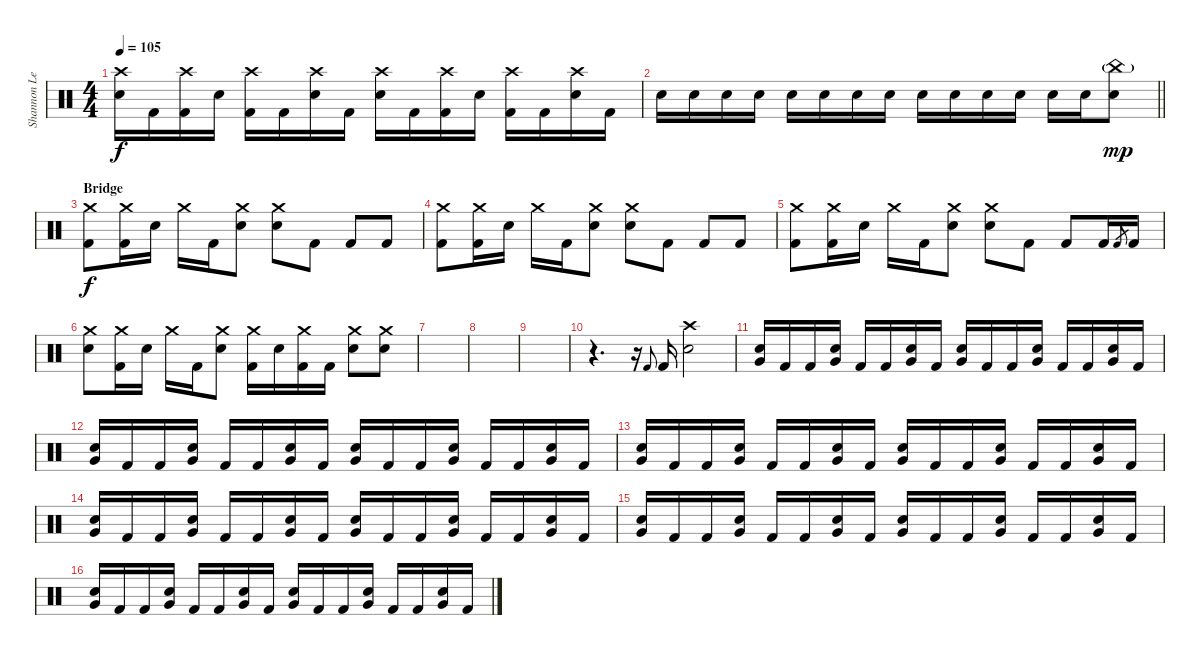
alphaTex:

\track ("Shannon Leto - Drums" "Shannon Le") {instrument percussion}
\staff {score}
\articulation defaults
\ts (4 4)
\tempo 105
\clef neutral
\ks c
("Crash high (hit)" "Electric Snare (hit)").16{dy f} "Kick (hit) 2".16 ("Crash high (hit)" "Kick (hit) 2").16 "Electric Snare (hit)".16 ("Crash high (hit)" "Kick (hit) 2").16 "Kick (hit) 2".16 ("Crash high (hit)" "Electric Snare (hit)").16 "Kick (hit) 2".16 ("Crash high (hit)" "Electric Snare (hit)").16 "Kick (hit) 2".16 ("Crash high (hit)" "Kick (hit) 2").16 "Electric Snare (hit)".16 ("Crash high (hit)" "Kick (hit) 2").16 "Kick (hit) 2".16 ("Crash high (hit)" "Electric Snare (hit)").16 "Kick (hit) 2".16 |
\barLineRight lightlight "Electric Snare (hit)".16 "Electric Snare (hit)".16 "Electric Snare (hit)".16 "Electric Snare (hit)".16 "Electric Snare (hit)".16 "Electric Snare (hit)".16 "Electric Snare (hit)".16 "Electric Snare (hit)".16 "Electric Snare (hit)".16 "Electric Snare (hit)".16 "Electric Snare (hit)".16 "Electric Snare (hit)".16 "Electric Snare (hit)".16 "Electric Snare (hit)".16
("China (hit)"{g} "Electric Snare (hit)").8{dy mp} |
\section ("" "Bridge")
("Crash medium (hit)" "Kick (hit) 2").8{dy f} ("Crash medium (hit)" "Kick (hit) 2").16 "Electric Snare (hit)".16 "Crash medium (hit)".16 "Kick (hit) 2".16 ("Crash medium (hit)" "Electric Snare (hit)").8 ("Crash medium (hit)" "Electric Snare (hit)").8 "Kick (hit) 2".8 "Kick (hit) 2".8 "Kick (hit) 2".8 |
("Crash medium (hit)" "Kick (hit) 2").8 ("Crash medium (hit)" "Kick (hit) 2").16 "Electric Snare (hit)".16 "Crash medium (hit)".16 "Kick (hit) 2".16 ("Crash medium (hit)" "Electric Snare (hit)").8 ("Crash medium (hit)" "Electric Snare (hit)").8 "Kick (hit) 2".8 "Kick (hit) 2".8 "Kick (hit) 2".8 |
("Crash medium (hit)" "Kick (hit) 2").8 ("Crash medium (hit)" "Kick (hit) 2").16 "Electric Snare (hit)".16 "Crash medium (hit)".16 "Kick (hit) 2".16 ("Crash medium (hit)" "Electric Snare (hit)").8 ("Crash medium (hit)" "Electric Snare (hit)").8 "Kick (hit) 2".8 "Kick (hit) 2".8 "Kick (hit) 2".16 "Kick (hit) 2".8{gr} "Kick (hit) 2".16 |
("Crash medium (hit)" "Electric Snare (hit)").8 ("Crash medium (hit)" "Kick (hit) 2").16 "Electric Snare (hit)".16 "Crash medium (hit)".16 "Kick (hit) 2".16 ("Crash medium (hit)" "Electric Snare (hit)").8 ("Crash medium (hit)" "Kick (hit) 2").16 "Electric Snare (hit)".16 ("Crash medium (hit)" "Kick (hit) 2").16 "Kick (hit) 2".16 ("Crash medium (hit)" "Electric Snare (hit)").8 ("Crash medium (hit)" "Electric Snare (hit)").8 |
|
|
|
r.4{d} r.16 "Kick (hit) 2".8{gr onbeat} "Kick (hit) 2".16 ("Crash high (hit)" "Electric Snare (hit)").2 |
("Electric Snare (hit)" "Very Low Tom (hit)").16 "Kick (hit) 2".16 "Kick (hit) 2".16 ("Electric Snare (hit)" "Very Low Tom (hit)").16 "Kick (hit) 2".16 "Kick (hit) 2".16 ("Electric Snare (hit)" "Very Low Tom (hit)").16 "Kick (hit) 2".16 ("Electric Snare (hit)" "Very Low Tom (hit)").16 "Kick (hit) 2".16 "Kick (hit) 2".16 ("Electric Snare (hit)" "Very Low Tom (hit)").16 "Kick (hit) 2".16 "Kick (hit) 2".16 ("Electric Snare (hit)" "Very Low Tom (hit)").16 "Kick (hit) 2".16 |
("Electric Snare (hit)" "Very Low Tom (hit)").16 "Kick (hit) 2".16 "Kick (hit) 2".16 ("Electric Snare (hit)" "Very Low Tom (hit)").16 "Kick (hit) 2".16 "Kick (hit) 2".16 ("Electric Snare (hit)" "Very Low Tom (hit)").16 "Kick (hit) 2".16 ("Electric Snare (hit)" "Very Low Tom (hit)").16 "Kick (hit) 2".16 "Kick (hit) 2".16 ("Electric Snare (hit)" "Very Low Tom (hit)").16 "Kick (hit) 2".16 "Kick (hit) 2".16 ("Electric Snare (hit)" "Very Low Tom (hit)").16 "Kick (hit) 2".16 |
("Electric Snare (hit)" "Very Low Tom (hit)").16 "Kick (hit) 2".16 "Kick (hit) 2".16 ("Electric Snare (hit)" "Very Low Tom (hit)").16 "Kick (hit) 2".16 "Kick (hit) 2".16 ("Electric Snare (hit)" "Very Low Tom (hit)").16 "Kick (hit) 2".16 ("Electric Snare (hit)" "Very Low Tom (hit)").16 "Kick (hit) 2".16 "Kick (hit) 2".16 ("Electric Snare (hit)" "Very Low Tom (hit)").16 "Kick (hit) 2".16 "Kick (hit) 2".16 ("Electric Snare (hit)" "Very Low Tom (hit)").16 "Kick (hit) 2".16 |
("Electric Snare (hit)" "Very Low Tom (hit)").16 "Kick (hit) 2".16 "Kick (hit) 2".16 ("Electric Snare (hit)" "Very Low Tom (hit)").16 "Kick (hit) 2".16 "Kick (hit) 2".16 ("Electric Snare (hit)" "Very Low Tom (hit)").16 "Kick (hit) 2".16 ("Electric Snare (hit)" "Very Low Tom (hit)").16 "Kick (hit) 2".16 "Kick (hit) 2".16 ("Electric Snare (hit)" "Very Low Tom (hit)").16 "Kick (hit) 2".16 "Kick (hit) 2".16 ("Electric Snare (hit)" "Very Low Tom (hit)").16 "Kick (hit) 2".16 |
("Electric Snare (hit)" "Very Low Tom (hit)").16 "Kick (hit) 2".16 "Kick (hit) 2".16 ("Electric Snare (hit)" "Very Low Tom (hit)").16 "Kick (hit) 2".16 "Kick (hit) 2".16 ("Electric Snare (hit)" "Very Low Tom (hit)").16 "Kick (hit) 2".16 ("Electric Snare (hit)" "Very Low Tom (hit)").16 "Kick (hit) 2".16 "Kick (hit) 2".16 ("Electric Snare (hit)" "Very Low Tom (hit)").16 "Kick (hit) 2".16 "Kick (hit) 2".16 ("Electric Snare (hit)" "Very Low Tom (hit)").16 "Kick (hit) 2".16 |
("Electric Snare (hit)" "Very Low Tom (hit)").16 "Kick (hit) 2".16 "Kick (hit) 2".16 ("Electric Snare (hit)" "Very Low Tom (hit)").16 "Kick (hit) 2".16 "Kick (hit) 2".16 ("Electric Snare (hit)" "Very Low Tom (hit)").16 "Kick (hit) 2".16 ("Electric Snare (hit)" "Very Low Tom (hit)").16 "Kick (hit) 2".16 "Kick (hit) 2".16 ("Electric Snare (hit)" "Very Low Tom (hit)").16 "Kick (hit) 2".16 "Kick (hit) 2".16 ("Electric Snare (hit)" "Very Low Tom (hit)").16 "Kick (hit) 2".16
